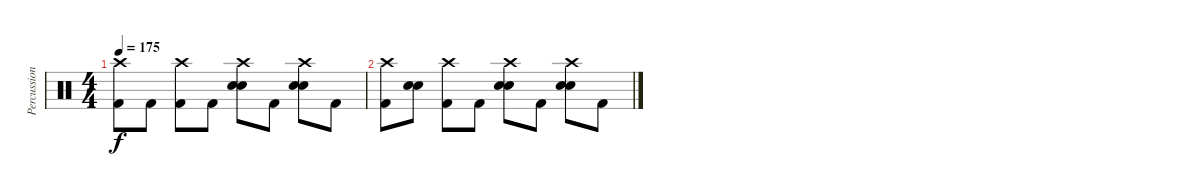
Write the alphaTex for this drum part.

\track ("Percussion" "Percussion") {instrument percussion}
\staff {score}
\articulation defaults
\ts (4 4)
\tempo 175
\clef neutral
\ks c
("Crash high (hit)" "Kick (hit) 2").8{dy f} "Kick (hit) 2".8 ("Crash high (hit)" "Kick (hit) 2").8 "Kick (hit) 2".8 ("Crash high (hit)" "Snare (hit) 2" "Electric Snare (hit)").8 "Kick (hit) 2".8 ("Crash high (hit)" "Snare (hit) 2" "Electric Snare (hit)").8 "Kick (hit) 2".8 |
("Crash high (hit)" "Kick (hit) 2").8 ("Snare (hit) 2" "Electric Snare (hit)").8 ("Crash high (hit)" "Kick (hit) 2").8 "Kick (hit) 2".8 ("Crash high (hit)" "Snare (hit) 2" "Electric Snare (hit)").8 "Kick (hit) 2".8 ("Crash high (hit)" "Snare (hit) 2" "Electric Snare (hit)").8 "Kick (hit) 2".8
